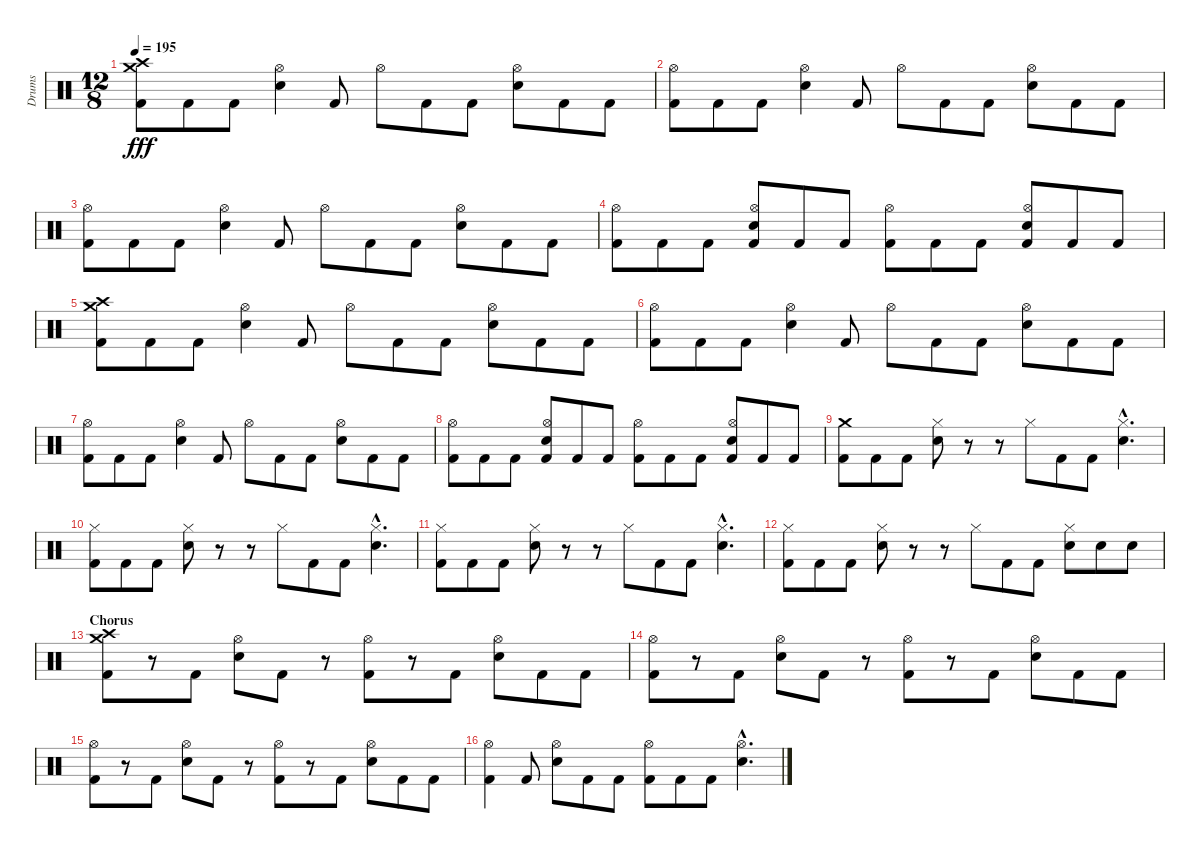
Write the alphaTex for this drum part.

\track ("Drums" "Drums") {instrument percussion}
\staff {score}
\articulation defaults
\ts (12 8)
\tempo 195
\clef neutral
\ks c
("Crash high (hit)" "Crash medium (hit)" "Kick (hit) 2").8{dy fff} "Kick (hit) 2".8 "Kick (hit) 2".8 ("Hi-Hat (open)" "Electric Snare (hit)").4 "Kick (hit) 2".8 "Hi-Hat (open)".8 "Kick (hit) 2".8 "Kick (hit) 2".8 ("Hi-Hat (open)" "Electric Snare (hit)").8 "Kick (hit) 2".8 "Kick (hit) 2".8 |
("Hi-Hat (open)" "Kick (hit) 2").8 "Kick (hit) 2".8 "Kick (hit) 2".8 ("Hi-Hat (open)" "Electric Snare (hit)").4 "Kick (hit) 2".8 "Hi-Hat (open)".8 "Kick (hit) 2".8 "Kick (hit) 2".8 ("Hi-Hat (open)" "Electric Snare (hit)").8 "Kick (hit) 2".8 "Kick (hit) 2".8 |
("Hi-Hat (open)" "Kick (hit) 2").8 "Kick (hit) 2".8 "Kick (hit) 2".8 ("Hi-Hat (open)" "Electric Snare (hit)").4 "Kick (hit) 2".8 "Hi-Hat (open)".8 "Kick (hit) 2".8 "Kick (hit) 2".8 ("Hi-Hat (open)" "Electric Snare (hit)").8 "Kick (hit) 2".8 "Kick (hit) 2".8 |
("Hi-Hat (open)" "Kick (hit) 2").8 "Kick (hit) 2".8 "Kick (hit) 2".8 ("Hi-Hat (open)" "Electric Snare (hit)" "Kick (hit) 2").8 "Kick (hit) 2".8 "Kick (hit) 2".8 ("Hi-Hat (open)" "Kick (hit) 2").8 "Kick (hit) 2".8 "Kick (hit) 2".8 ("Hi-Hat (open)" "Electric Snare (hit)" "Kick (hit) 2").8 "Kick (hit) 2".8 "Kick (hit) 2".8 |
("Crash high (hit)" "Crash medium (hit)" "Kick (hit) 2").8 "Kick (hit) 2".8 "Kick (hit) 2".8 ("Hi-Hat (open)" "Electric Snare (hit)").4 "Kick (hit) 2".8 "Hi-Hat (open)".8 "Kick (hit) 2".8 "Kick (hit) 2".8 ("Hi-Hat (open)" "Electric Snare (hit)").8 "Kick (hit) 2".8 "Kick (hit) 2".8 |
("Hi-Hat (open)" "Kick (hit) 2").8 "Kick (hit) 2".8 "Kick (hit) 2".8 ("Hi-Hat (open)" "Electric Snare (hit)").4 "Kick (hit) 2".8 "Hi-Hat (open)".8 "Kick (hit) 2".8 "Kick (hit) 2".8 ("Hi-Hat (open)" "Electric Snare (hit)").8 "Kick (hit) 2".8 "Kick (hit) 2".8 |
("Hi-Hat (open)" "Kick (hit) 2").8 "Kick (hit) 2".8 "Kick (hit) 2".8 ("Hi-Hat (open)" "Electric Snare (hit)").4 "Kick (hit) 2".8 "Hi-Hat (open)".8 "Kick (hit) 2".8 "Kick (hit) 2".8 ("Hi-Hat (open)" "Electric Snare (hit)").8 "Kick (hit) 2".8 "Kick (hit) 2".8 |
("Hi-Hat (open)" "Kick (hit) 2").8 "Kick (hit) 2".8 "Kick (hit) 2".8 ("Hi-Hat (open)" "Electric Snare (hit)" "Kick (hit) 2").8 "Kick (hit) 2".8 "Kick (hit) 2".8 ("Hi-Hat (open)" "Kick (hit) 2").8 "Kick (hit) 2".8 "Kick (hit) 2".8 ("Hi-Hat (open)" "Electric Snare (hit)" "Kick (hit) 2").8 "Kick (hit) 2".8 "Kick (hit) 2".8 |
("Crash medium (hit)" "Kick (hit) 2").8 "Kick (hit) 2".8 "Kick (hit) 2".8 ("Hi-Hat (closed)" "Electric Snare (hit)").8 r.8 r.8 "Hi-Hat (closed)".8 "Kick (hit) 2".8 "Kick (hit) 2".8 ("Hi-Hat (closed)"{hac} "Electric Snare (hit)"{hac}).4{d} |
("Hi-Hat (closed)" "Kick (hit) 2").8 "Kick (hit) 2".8 "Kick (hit) 2".8 ("Hi-Hat (closed)" "Electric Snare (hit)").8 r.8 r.8 "Hi-Hat (closed)".8 "Kick (hit) 2".8 "Kick (hit) 2".8 ("Hi-Hat (closed)"{hac} "Electric Snare (hit)"{hac}).4{d} |
("Hi-Hat (closed)" "Kick (hit) 2").8 "Kick (hit) 2".8 "Kick (hit) 2".8 ("Hi-Hat (closed)" "Electric Snare (hit)").8 r.8 r.8 "Hi-Hat (closed)".8 "Kick (hit) 2".8 "Kick (hit) 2".8 ("Hi-Hat (closed)"{hac} "Electric Snare (hit)"{hac}).4{d} |
("Hi-Hat (closed)" "Kick (hit) 2").8 "Kick (hit) 2".8 "Kick (hit) 2".8 ("Hi-Hat (closed)" "Electric Snare (hit)").8 r.8 r.8 "Hi-Hat (closed)".8 "Kick (hit) 2".8 "Kick (hit) 2".8 ("Hi-Hat (closed)" "Electric Snare (hit)").8 "Electric Snare (hit)".8 "Electric Snare (hit)".8 |
\section ("" "Chorus")
("Crash high (hit)" "Crash medium (hit)" "Kick (hit) 2").8 r.8 "Kick (hit) 2".8 ("Hi-Hat (open)" "Electric Snare (hit)").8 "Kick (hit) 2".8 r.8 ("Hi-Hat (open)" "Kick (hit) 2").8 r.8 "Kick (hit) 2".8 ("Hi-Hat (open)" "Electric Snare (hit)").8 "Kick (hit) 2".8 "Kick (hit) 2".8 |
("Hi-Hat (open)" "Kick (hit) 2").8 r.8 "Kick (hit) 2".8 ("Hi-Hat (open)" "Electric Snare (hit)").8 "Kick (hit) 2".8 r.8 ("Hi-Hat (open)" "Kick (hit) 2").8 r.8 "Kick (hit) 2".8 ("Hi-Hat (open)" "Electric Snare (hit)").8 "Kick (hit) 2".8 "Kick (hit) 2".8 |
("Hi-Hat (open)" "Kick (hit) 2").8 r.8 "Kick (hit) 2".8 ("Hi-Hat (open)" "Electric Snare (hit)").8 "Kick (hit) 2".8 r.8 ("Hi-Hat (open)" "Kick (hit) 2").8 r.8 "Kick (hit) 2".8 ("Hi-Hat (open)" "Electric Snare (hit)").8 "Kick (hit) 2".8 "Kick (hit) 2".8 |
("Hi-Hat (open)" "Kick (hit) 2").4 "Kick (hit) 2".8 ("Hi-Hat (open)" "Electric Snare (hit)").8 "Kick (hit) 2".8 "Kick (hit) 2".8 ("Hi-Hat (open)" "Kick (hit) 2").8 "Kick (hit) 2".8 "Kick (hit) 2".8 ("Hi-Hat (open)"{hac} "Electric Snare (hit)"{hac}).4{d}
